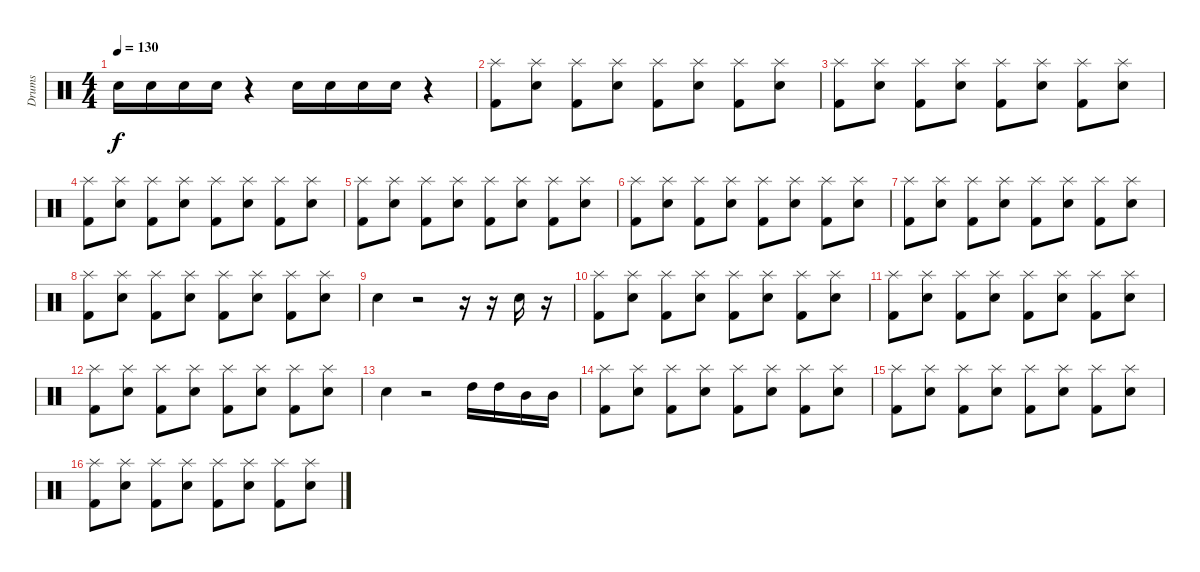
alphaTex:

\track ("Drums" "Drums") {instrument percussion}
\staff {score}
\articulation defaults
\ts (4 4)
\tempo 130
\clef neutral
\ks c "Electric Snare (hit)".16{dy f} "Electric Snare (hit)".16 "Electric Snare (hit)".16 "Electric Snare (hit)".16
r.4 "Electric Snare (hit)".16 "Electric Snare (hit)".16 "Electric Snare (hit)".16 "Electric Snare (hit)".16 r.4 |
("Splash (hit)" "Kick (hit) 2").8 ("Splash (hit)" "Electric Snare (hit)").8 ("Splash (hit)" "Kick (hit) 2").8 ("Splash (hit)" "Electric Snare (hit)").8 ("Splash (hit)" "Kick (hit) 2").8 ("Splash (hit)" "Electric Snare (hit)").8 ("Splash (hit)" "Kick (hit) 2").8 ("Splash (hit)" "Electric Snare (hit)").8 |
("Splash (hit)" "Kick (hit) 2").8 ("Splash (hit)" "Electric Snare (hit)").8 ("Splash (hit)" "Kick (hit) 2").8 ("Splash (hit)" "Electric Snare (hit)").8 ("Splash (hit)" "Kick (hit) 2").8 ("Splash (hit)" "Electric Snare (hit)").8 ("Splash (hit)" "Kick (hit) 2").8 ("Splash (hit)" "Electric Snare (hit)").8 |
("Splash (hit)" "Kick (hit) 2").8 ("Splash (hit)" "Electric Snare (hit)").8 ("Splash (hit)" "Kick (hit) 2").8 ("Splash (hit)" "Electric Snare (hit)").8 ("Splash (hit)" "Kick (hit) 2").8 ("Splash (hit)" "Electric Snare (hit)").8 ("Splash (hit)" "Kick (hit) 2").8 ("Splash (hit)" "Electric Snare (hit)").8 |
("Splash (hit)" "Kick (hit) 2").8 ("Splash (hit)" "Electric Snare (hit)").8 ("Splash (hit)" "Kick (hit) 2").8 ("Splash (hit)" "Electric Snare (hit)").8 ("Splash (hit)" "Kick (hit) 2").8 ("Splash (hit)" "Electric Snare (hit)").8 ("Splash (hit)" "Kick (hit) 2").8 ("Splash (hit)" "Electric Snare (hit)").8 |
("Splash (hit)" "Kick (hit) 2").8 ("Splash (hit)" "Electric Snare (hit)").8 ("Splash (hit)" "Kick (hit) 2").8 ("Splash (hit)" "Electric Snare (hit)").8 ("Splash (hit)" "Kick (hit) 2").8 ("Splash (hit)" "Electric Snare (hit)").8 ("Splash (hit)" "Kick (hit) 2").8 ("Splash (hit)" "Electric Snare (hit)").8 |
("Splash (hit)" "Kick (hit) 2").8 ("Splash (hit)" "Electric Snare (hit)").8 ("Splash (hit)" "Kick (hit) 2").8 ("Splash (hit)" "Electric Snare (hit)").8 ("Splash (hit)" "Kick (hit) 2").8 ("Splash (hit)" "Electric Snare (hit)").8 ("Splash (hit)" "Kick (hit) 2").8 ("Splash (hit)" "Electric Snare (hit)").8 |
("Splash (hit)" "Kick (hit) 2").8 ("Splash (hit)" "Electric Snare (hit)").8 ("Splash (hit)" "Kick (hit) 2").8 ("Splash (hit)" "Electric Snare (hit)").8 ("Splash (hit)" "Kick (hit) 2").8 ("Splash (hit)" "Electric Snare (hit)").8 ("Splash (hit)" "Kick (hit) 2").8 ("Splash (hit)" "Electric Snare (hit)").8 |
"Electric Snare (hit)".4 r.2 r.16 r.16 "Electric Snare (hit)".16 r.16 |
("Splash (hit)" "Kick (hit) 2").8 ("Splash (hit)" "Electric Snare (hit)").8 ("Splash (hit)" "Kick (hit) 2").8 ("Splash (hit)" "Electric Snare (hit)").8 ("Splash (hit)" "Kick (hit) 2").8 ("Splash (hit)" "Electric Snare (hit)").8 ("Splash (hit)" "Kick (hit) 2").8 ("Splash (hit)" "Electric Snare (hit)").8 |
("Splash (hit)" "Kick (hit) 2").8 ("Splash (hit)" "Electric Snare (hit)").8 ("Splash (hit)" "Kick (hit) 2").8 ("Splash (hit)" "Electric Snare (hit)").8 ("Splash (hit)" "Kick (hit) 2").8 ("Splash (hit)" "Electric Snare (hit)").8 ("Splash (hit)" "Kick (hit) 2").8 ("Splash (hit)" "Electric Snare (hit)").8 |
("Splash (hit)" "Kick (hit) 2").8 ("Splash (hit)" "Electric Snare (hit)").8 ("Splash (hit)" "Kick (hit) 2").8 ("Splash (hit)" "Electric Snare (hit)").8 ("Splash (hit)" "Kick (hit) 2").8 ("Splash (hit)" "Electric Snare (hit)").8 ("Splash (hit)" "Kick (hit) 2").8 ("Splash (hit)" "Electric Snare (hit)").8 |
"Electric Snare (hit)".4 r.2 "High Tom (hit)".16 "High Tom (hit)".16 "Mid Tom (hit)".16 "Mid Tom (hit)".16 |
("Splash (hit)" "Kick (hit) 2").8 ("Splash (hit)" "Electric Snare (hit)").8 ("Splash (hit)" "Kick (hit) 2").8 ("Splash (hit)" "Electric Snare (hit)").8 ("Splash (hit)" "Kick (hit) 2").8 ("Splash (hit)" "Electric Snare (hit)").8 ("Splash (hit)" "Kick (hit) 2").8 ("Splash (hit)" "Electric Snare (hit)").8 |
("Splash (hit)" "Kick (hit) 2").8 ("Splash (hit)" "Electric Snare (hit)").8 ("Splash (hit)" "Kick (hit) 2").8 ("Splash (hit)" "Electric Snare (hit)").8 ("Splash (hit)" "Kick (hit) 2").8 ("Splash (hit)" "Electric Snare (hit)").8 ("Splash (hit)" "Kick (hit) 2").8 ("Splash (hit)" "Electric Snare (hit)").8 |
("Splash (hit)" "Kick (hit) 2").8 ("Splash (hit)" "Electric Snare (hit)").8 ("Splash (hit)" "Kick (hit) 2").8 ("Splash (hit)" "Electric Snare (hit)").8 ("Splash (hit)" "Kick (hit) 2").8 ("Splash (hit)" "Electric Snare (hit)").8 ("Splash (hit)" "Kick (hit) 2").8 ("Splash (hit)" "Electric Snare (hit)").8
